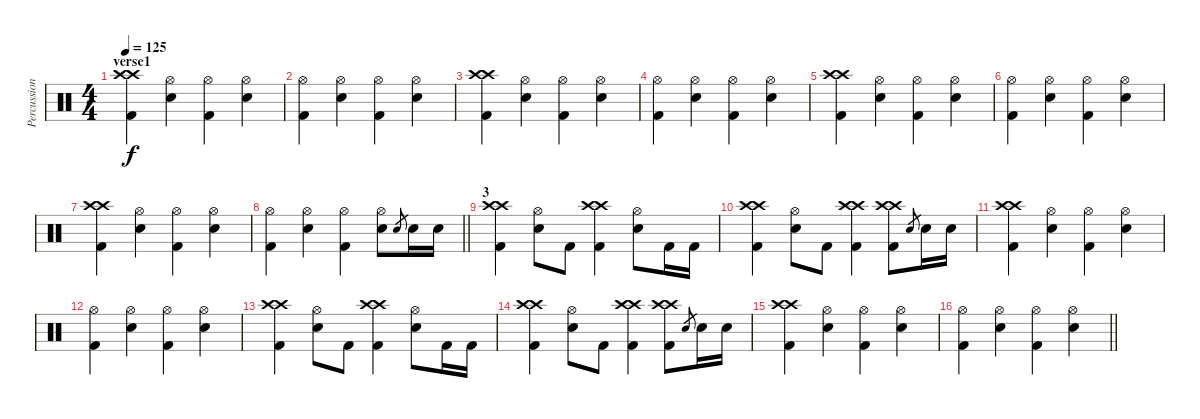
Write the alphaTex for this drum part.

\track ("Percussion" "Percussion") {instrument percussion}
\staff {score}
\articulation defaults
\ts (4 4)
\section ("" "verse1")
\tempo 125
\clef neutral
\ks c
("Crash high (hit)" "Crash high (hit)" "Kick (hit) 2").4{dy f} ("Hi-Hat (open)" "Snare (hit) 2").4 ("Hi-Hat (open)" "Kick (hit) 2").4 ("Hi-Hat (open)" "Snare (hit) 2").4 |
("Hi-Hat (open)" "Kick (hit) 2").4 ("Hi-Hat (open)" "Snare (hit) 2").4 ("Hi-Hat (open)" "Kick (hit) 2").4 ("Hi-Hat (open)" "Snare (hit) 2").4 |
("Crash high (hit)" "Crash high (hit)" "Kick (hit) 2").4 ("Hi-Hat (open)" "Snare (hit) 2").4 ("Hi-Hat (open)" "Kick (hit) 2").4 ("Hi-Hat (open)" "Snare (hit) 2").4 |
("Hi-Hat (open)" "Kick (hit) 2").4 ("Hi-Hat (open)" "Snare (hit) 2").4 ("Hi-Hat (open)" "Kick (hit) 2").4 ("Hi-Hat (open)" "Snare (hit) 2").4 |
("Crash high (hit)" "Crash high (hit)" "Kick (hit) 2").4 ("Hi-Hat (open)" "Snare (hit) 2").4 ("Hi-Hat (open)" "Kick (hit) 2").4 ("Hi-Hat (open)" "Snare (hit) 2").4 |
("Hi-Hat (open)" "Kick (hit) 2").4 ("Hi-Hat (open)" "Snare (hit) 2").4 ("Hi-Hat (open)" "Kick (hit) 2").4 ("Hi-Hat (open)" "Snare (hit) 2").4 |
("Crash high (hit)" "Crash high (hit)" "Kick (hit) 2").4 ("Hi-Hat (open)" "Snare (hit) 2").4 ("Hi-Hat (open)" "Kick (hit) 2").4 ("Hi-Hat (open)" "Snare (hit) 2").4 |
\barLineRight lightlight
("Hi-Hat (open)" "Kick (hit) 2").4 ("Hi-Hat (open)" "Snare (hit) 2").4 ("Hi-Hat (open)" "Kick (hit) 2").4 ("Hi-Hat (open)" "Snare (hit) 2").8 "Snare (hit) 2".8{gr} "Snare (hit) 2".16 "Snare (hit) 2".16 |
\section ("" "3")
("Crash high (hit)" "Crash high (hit)" "Kick (hit) 2").4 ("Hi-Hat (open)" "Snare (hit) 2").8 "Kick (hit) 2".8 ("Crash high (hit)" "Crash high (hit)" "Kick (hit) 2").4 ("Hi-Hat (open)" "Snare (hit) 2").8 "Kick (hit) 2".16 "Kick (hit) 2".16 |
("Crash high (hit)" "Crash high (hit)" "Kick (hit) 2").4 ("Hi-Hat (open)" "Snare (hit) 2").8 "Kick (hit) 2".8 ("Crash high (hit)" "Crash high (hit)" "Kick (hit) 2").4 ("Crash high (hit)" "Crash high (hit)" "Kick (hit) 2").8 "Snare (hit) 2".8{gr} "Snare (hit) 2".16 "Snare (hit) 2".16 |
("Crash high (hit)" "Crash high (hit)" "Kick (hit) 2").4 ("Hi-Hat (open)" "Snare (hit) 2").4 ("Hi-Hat (open)" "Kick (hit) 2").4 ("Hi-Hat (open)" "Snare (hit) 2").4 |
("Hi-Hat (open)" "Kick (hit) 2").4 ("Hi-Hat (open)" "Snare (hit) 2").4 ("Hi-Hat (open)" "Kick (hit) 2").4 ("Hi-Hat (open)" "Snare (hit) 2").4 |
("Crash high (hit)" "Crash high (hit)" "Kick (hit) 2").4 ("Hi-Hat (open)" "Snare (hit) 2").8 "Kick (hit) 2".8 ("Crash high (hit)" "Crash high (hit)" "Kick (hit) 2").4 ("Hi-Hat (open)" "Snare (hit) 2").8 "Kick (hit) 2".16 "Kick (hit) 2".16 |
("Crash high (hit)" "Crash high (hit)" "Kick (hit) 2").4 ("Hi-Hat (open)" "Snare (hit) 2").8 "Kick (hit) 2".8 ("Crash high (hit)" "Crash high (hit)" "Kick (hit) 2").4 ("Crash high (hit)" "Crash high (hit)" "Kick (hit) 2").8 "Snare (hit) 2".8{gr} "Snare (hit) 2".16 "Snare (hit) 2".16 |
("Crash high (hit)" "Crash high (hit)" "Kick (hit) 2").4 ("Hi-Hat (open)" "Snare (hit) 2").4 ("Hi-Hat (open)" "Kick (hit) 2").4 ("Hi-Hat (open)" "Snare (hit) 2").4 |
\barLineRight lightlight
("Hi-Hat (open)" "Kick (hit) 2").4 ("Hi-Hat (open)" "Snare (hit) 2").4 ("Hi-Hat (open)" "Kick (hit) 2").4 ("Hi-Hat (open)" "Snare (hit) 2").4
